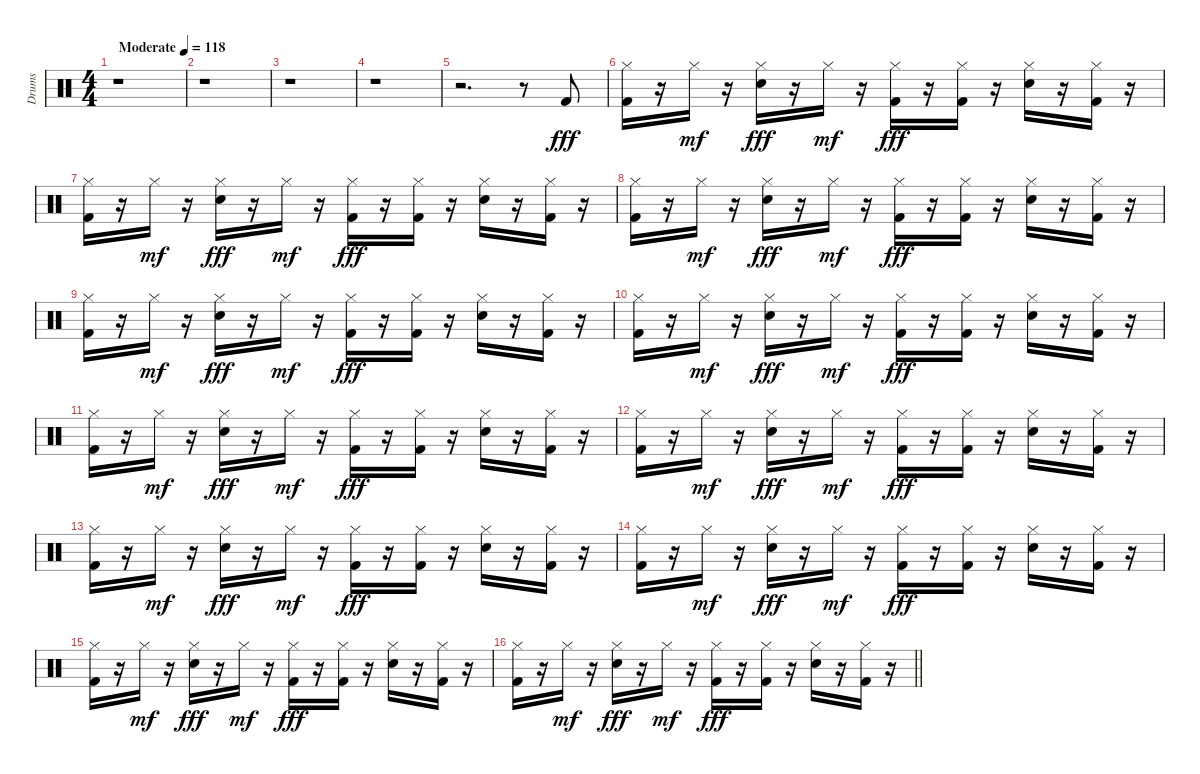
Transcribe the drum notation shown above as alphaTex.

\track ("Drums" "Drums") {instrument percussion}
\staff {score}
\articulation defaults
\ts (4 4)
\tempo (118 "Moderate")
\clef neutral
\ks c
r.1{dy fff} |
r.1 |
r.1 |
r.1 |
r.2{d} r.8 "Kick (hit) 2".8 |
("Hi-Hat (closed)" "Kick (hit) 2").16 r.16 "Hi-Hat (closed)".16{dy mf} r.16 ("Hi-Hat (closed)" "Snare (hit) 2").16{dy fff} r.16 "Hi-Hat (closed)".16{dy mf} r.16 ("Hi-Hat (closed)" "Kick (hit) 2").16{dy fff} r.16 ("Hi-Hat (closed)" "Kick (hit) 2").16 r.16 ("Hi-Hat (closed)" "Snare (hit) 2").16 r.16 ("Hi-Hat (closed)" "Kick (hit) 2").16 r.16 |
("Hi-Hat (closed)" "Kick (hit) 2").16 r.16 "Hi-Hat (closed)".16{dy mf} r.16 ("Hi-Hat (closed)" "Snare (hit) 2").16{dy fff} r.16 "Hi-Hat (closed)".16{dy mf} r.16 ("Hi-Hat (closed)" "Kick (hit) 2").16{dy fff} r.16 ("Hi-Hat (closed)" "Kick (hit) 2").16 r.16 ("Hi-Hat (closed)" "Snare (hit) 2").16 r.16 ("Hi-Hat (closed)" "Kick (hit) 2").16 r.16 |
("Hi-Hat (closed)" "Kick (hit) 2").16 r.16 "Hi-Hat (closed)".16{dy mf} r.16 ("Hi-Hat (closed)" "Snare (hit) 2").16{dy fff} r.16 "Hi-Hat (closed)".16{dy mf} r.16 ("Hi-Hat (closed)" "Kick (hit) 2").16{dy fff} r.16 ("Hi-Hat (closed)" "Kick (hit) 2").16 r.16 ("Hi-Hat (closed)" "Snare (hit) 2").16 r.16 ("Hi-Hat (closed)" "Kick (hit) 2").16 r.16 |
("Hi-Hat (closed)" "Kick (hit) 2").16 r.16 "Hi-Hat (closed)".16{dy mf} r.16 ("Hi-Hat (closed)" "Snare (hit) 2").16{dy fff} r.16 "Hi-Hat (closed)".16{dy mf} r.16 ("Hi-Hat (closed)" "Kick (hit) 2").16{dy fff} r.16 ("Hi-Hat (closed)" "Kick (hit) 2").16 r.16 ("Hi-Hat (closed)" "Snare (hit) 2").16 r.16 ("Hi-Hat (closed)" "Kick (hit) 2").16 r.16 |
("Hi-Hat (closed)" "Kick (hit) 2").16 r.16 "Hi-Hat (closed)".16{dy mf} r.16 ("Hi-Hat (closed)" "Snare (hit) 2").16{dy fff} r.16 "Hi-Hat (closed)".16{dy mf} r.16 ("Hi-Hat (closed)" "Kick (hit) 2").16{dy fff} r.16 ("Hi-Hat (closed)" "Kick (hit) 2").16 r.16 ("Hi-Hat (closed)" "Snare (hit) 2").16 r.16 ("Hi-Hat (closed)" "Kick (hit) 2").16 r.16 |
("Hi-Hat (closed)" "Kick (hit) 2").16 r.16 "Hi-Hat (closed)".16{dy mf} r.16 ("Hi-Hat (closed)" "Snare (hit) 2").16{dy fff} r.16 "Hi-Hat (closed)".16{dy mf} r.16 ("Hi-Hat (closed)" "Kick (hit) 2").16{dy fff} r.16 ("Hi-Hat (closed)" "Kick (hit) 2").16 r.16 ("Hi-Hat (closed)" "Snare (hit) 2").16 r.16 ("Hi-Hat (closed)" "Kick (hit) 2").16 r.16 |
("Hi-Hat (closed)" "Kick (hit) 2").16 r.16 "Hi-Hat (closed)".16{dy mf} r.16 ("Hi-Hat (closed)" "Snare (hit) 2").16{dy fff} r.16 "Hi-Hat (closed)".16{dy mf} r.16 ("Hi-Hat (closed)" "Kick (hit) 2").16{dy fff} r.16 ("Hi-Hat (closed)" "Kick (hit) 2").16 r.16 ("Hi-Hat (closed)" "Snare (hit) 2").16 r.16 ("Hi-Hat (closed)" "Kick (hit) 2").16 r.16 |
("Hi-Hat (closed)" "Kick (hit) 2").16 r.16 "Hi-Hat (closed)".16{dy mf} r.16 ("Hi-Hat (closed)" "Snare (hit) 2").16{dy fff} r.16 "Hi-Hat (closed)".16{dy mf} r.16 ("Hi-Hat (closed)" "Kick (hit) 2").16{dy fff} r.16 ("Hi-Hat (closed)" "Kick (hit) 2").16 r.16 ("Hi-Hat (closed)" "Snare (hit) 2").16 r.16 ("Hi-Hat (closed)" "Kick (hit) 2").16 r.16 |
("Hi-Hat (closed)" "Kick (hit) 2").16 r.16 "Hi-Hat (closed)".16{dy mf} r.16 ("Hi-Hat (closed)" "Snare (hit) 2").16{dy fff} r.16 "Hi-Hat (closed)".16{dy mf} r.16 ("Hi-Hat (closed)" "Kick (hit) 2").16{dy fff} r.16 ("Hi-Hat (closed)" "Kick (hit) 2").16 r.16 ("Hi-Hat (closed)" "Snare (hit) 2").16 r.16 ("Hi-Hat (closed)" "Kick (hit) 2").16 r.16 |
("Hi-Hat (closed)" "Kick (hit) 2").16 r.16 "Hi-Hat (closed)".16{dy mf} r.16 ("Hi-Hat (closed)" "Snare (hit) 2").16{dy fff} r.16 "Hi-Hat (closed)".16{dy mf} r.16 ("Hi-Hat (closed)" "Kick (hit) 2").16{dy fff} r.16 ("Hi-Hat (closed)" "Kick (hit) 2").16 r.16 ("Hi-Hat (closed)" "Snare (hit) 2").16 r.16 ("Hi-Hat (closed)" "Kick (hit) 2").16 r.16 |
\barLineRight lightlight
("Hi-Hat (closed)" "Kick (hit) 2").16 r.16 "Hi-Hat (closed)".16{dy mf} r.16 ("Hi-Hat (closed)" "Snare (hit) 2").16{dy fff} r.16 "Hi-Hat (closed)".16{dy mf} r.16 ("Hi-Hat (closed)" "Kick (hit) 2").16{dy fff} r.16 ("Hi-Hat (closed)" "Kick (hit) 2").16 r.16 ("Hi-Hat (closed)" "Snare (hit) 2").16 r.16 ("Hi-Hat (closed)" "Kick (hit) 2").16 r.16
